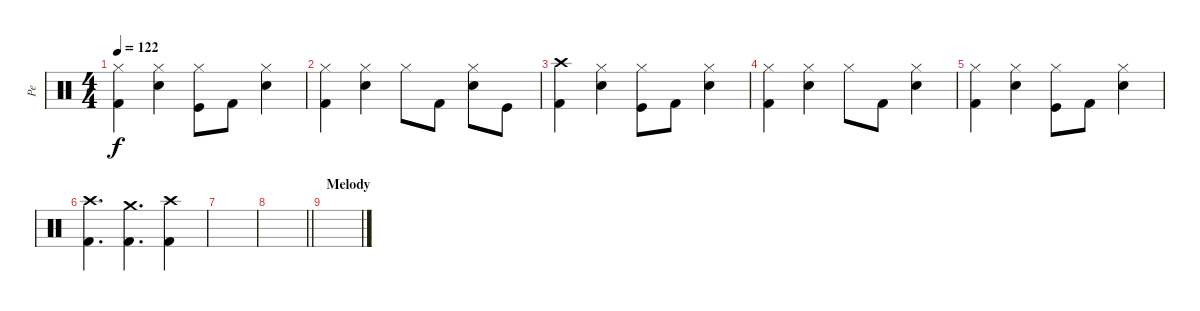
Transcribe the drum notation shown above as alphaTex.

\track ("Pe" "Pe") {instrument percussion}
\staff {score}
\articulation defaults
\ts (4 4)
\tempo 122
\clef neutral
\ks c
("Kick (hit) 2" "Hi-Hat (closed)").4{dy f} ("Electric Snare (hit)" "Hi-Hat (closed)").4 ("Kick (hit)" "Hi-Hat (closed)").8 "Kick (hit) 2".8 ("Electric Snare (hit)" "Hi-Hat (closed)").4 |
("Kick (hit) 2" "Hi-Hat (closed)").4 ("Electric Snare (hit)" "Hi-Hat (closed)").4 "Hi-Hat (closed)".8 "Kick (hit) 2".8 ("Electric Snare (hit)" "Hi-Hat (closed)").8 "Kick (hit)".8 |
("Kick (hit) 2" "Crash high (hit)").4 ("Electric Snare (hit)" "Hi-Hat (closed)").4 ("Kick (hit)" "Hi-Hat (closed)").8 "Kick (hit) 2".8 ("Electric Snare (hit)" "Hi-Hat (closed)").4 |
("Kick (hit) 2" "Hi-Hat (closed)").4 ("Electric Snare (hit)" "Hi-Hat (closed)").4 "Hi-Hat (closed)".8 "Kick (hit) 2".8 ("Electric Snare (hit)" "Hi-Hat (closed)").4 |
("Kick (hit) 2" "Hi-Hat (closed)").4 ("Electric Snare (hit)" "Hi-Hat (closed)").4 ("Kick (hit)" "Hi-Hat (closed)").8 "Kick (hit) 2".8 ("Electric Snare (hit)" "Hi-Hat (closed)").4 |
("Kick (hit) 2" "Crash high (hit)").4{d} ("Kick (hit) 2" "Crash medium (hit)").4{d} ("Kick (hit) 2" "Crash high (hit)").4 |
|
\barLineRight lightlight
|
\section ("" "Melody")
